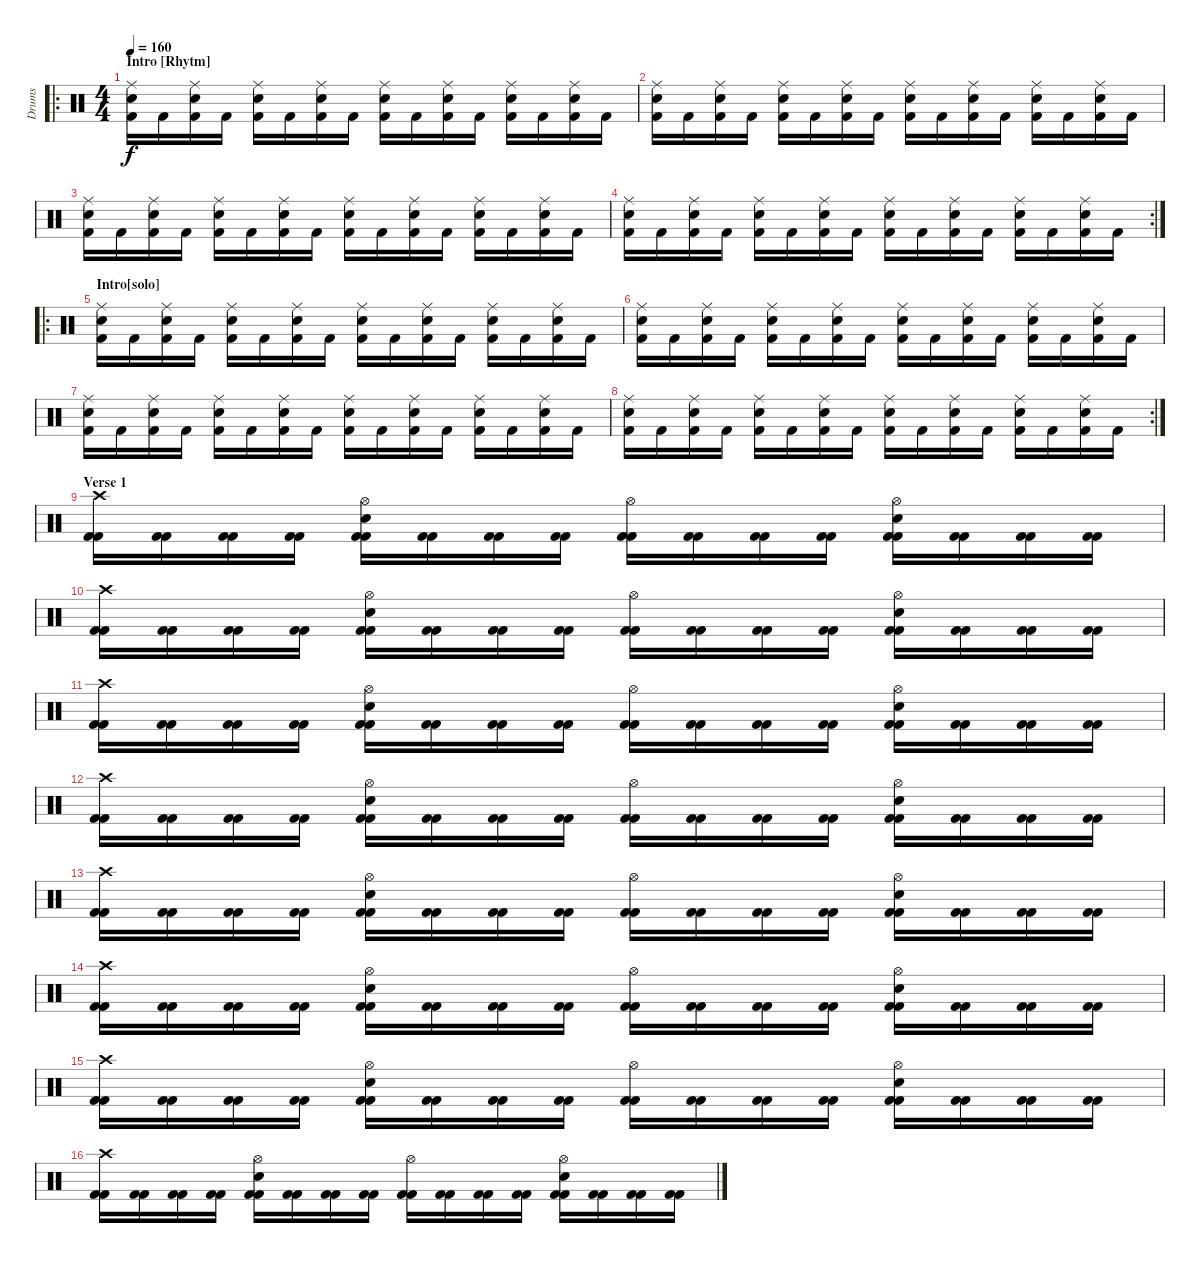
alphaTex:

\track ("Drums" "Drums") {instrument percussion}
\staff {score}
\articulation defaults
\ro
\ts (4 4)
\section ("" "Intro [Rhytm]")
\tempo 160
\clef neutral
\ks c
("Kick (hit) 2" "Electric Snare (hit)" "Ride (middle)").16{dy f} "Kick (hit) 2".16 ("Kick (hit) 2" "Electric Snare (hit)" "Ride (middle)").16 "Kick (hit) 2".16 ("Kick (hit) 2" "Electric Snare (hit)" "Ride (middle)").16 "Kick (hit) 2".16 ("Kick (hit) 2" "Electric Snare (hit)" "Ride (middle)").16 "Kick (hit) 2".16 ("Kick (hit) 2" "Electric Snare (hit)" "Ride (middle)").16 "Kick (hit) 2".16 ("Kick (hit) 2" "Electric Snare (hit)" "Ride (middle)").16 "Kick (hit) 2".16 ("Kick (hit) 2" "Electric Snare (hit)" "Ride (middle)").16 "Kick (hit) 2".16 ("Kick (hit) 2" "Electric Snare (hit)" "Ride (middle)").16 "Kick (hit) 2".16 |
("Kick (hit) 2" "Electric Snare (hit)" "Ride (middle)").16 "Kick (hit) 2".16 ("Kick (hit) 2" "Electric Snare (hit)" "Ride (middle)").16 "Kick (hit) 2".16 ("Kick (hit) 2" "Electric Snare (hit)" "Ride (middle)").16 "Kick (hit) 2".16 ("Kick (hit) 2" "Electric Snare (hit)" "Ride (middle)").16 "Kick (hit) 2".16 ("Kick (hit) 2" "Electric Snare (hit)" "Ride (middle)").16 "Kick (hit) 2".16 ("Kick (hit) 2" "Electric Snare (hit)" "Ride (middle)").16 "Kick (hit) 2".16 ("Kick (hit) 2" "Electric Snare (hit)" "Ride (middle)").16 "Kick (hit) 2".16 ("Kick (hit) 2" "Electric Snare (hit)" "Ride (middle)").16 "Kick (hit) 2".16 |
("Kick (hit) 2" "Electric Snare (hit)" "Ride (middle)").16 "Kick (hit) 2".16 ("Kick (hit) 2" "Electric Snare (hit)" "Ride (middle)").16 "Kick (hit) 2".16 ("Kick (hit) 2" "Electric Snare (hit)" "Ride (middle)").16 "Kick (hit) 2".16 ("Kick (hit) 2" "Electric Snare (hit)" "Ride (middle)").16 "Kick (hit) 2".16 ("Kick (hit) 2" "Electric Snare (hit)" "Ride (middle)").16 "Kick (hit) 2".16 ("Kick (hit) 2" "Electric Snare (hit)" "Ride (middle)").16 "Kick (hit) 2".16 ("Kick (hit) 2" "Electric Snare (hit)" "Ride (middle)").16 "Kick (hit) 2".16 ("Kick (hit) 2" "Electric Snare (hit)" "Ride (middle)").16 "Kick (hit) 2".16 |
\rc 2
("Kick (hit) 2" "Electric Snare (hit)" "Ride (middle)").16 "Kick (hit) 2".16 ("Kick (hit) 2" "Electric Snare (hit)" "Ride (middle)").16 "Kick (hit) 2".16 ("Kick (hit) 2" "Electric Snare (hit)" "Ride (middle)").16 "Kick (hit) 2".16 ("Kick (hit) 2" "Electric Snare (hit)" "Ride (middle)").16 "Kick (hit) 2".16 ("Kick (hit) 2" "Electric Snare (hit)" "Ride (middle)").16 "Kick (hit) 2".16 ("Kick (hit) 2" "Electric Snare (hit)" "Ride (middle)").16 "Kick (hit) 2".16 ("Kick (hit) 2" "Electric Snare (hit)" "Ride (middle)").16 "Kick (hit) 2".16 ("Kick (hit) 2" "Electric Snare (hit)" "Ride (middle)").16 "Kick (hit) 2".16 |
\ro
\section ("" "Intro[solo]")
("Kick (hit) 2" "Electric Snare (hit)" "Ride (middle)").16 "Kick (hit) 2".16 ("Kick (hit) 2" "Electric Snare (hit)" "Ride (middle)").16 "Kick (hit) 2".16 ("Kick (hit) 2" "Electric Snare (hit)" "Ride (middle)").16 "Kick (hit) 2".16 ("Kick (hit) 2" "Electric Snare (hit)" "Ride (middle)").16 "Kick (hit) 2".16 ("Kick (hit) 2" "Electric Snare (hit)" "Ride (middle)").16 "Kick (hit) 2".16 ("Kick (hit) 2" "Electric Snare (hit)" "Ride (middle)").16 "Kick (hit) 2".16 ("Kick (hit) 2" "Electric Snare (hit)" "Ride (middle)").16 "Kick (hit) 2".16 ("Kick (hit) 2" "Electric Snare (hit)" "Ride (middle)").16 "Kick (hit) 2".16 |
("Kick (hit) 2" "Electric Snare (hit)" "Ride (middle)").16 "Kick (hit) 2".16 ("Kick (hit) 2" "Electric Snare (hit)" "Ride (middle)").16 "Kick (hit) 2".16 ("Kick (hit) 2" "Electric Snare (hit)" "Ride (middle)").16 "Kick (hit) 2".16 ("Kick (hit) 2" "Electric Snare (hit)" "Ride (middle)").16 "Kick (hit) 2".16 ("Kick (hit) 2" "Electric Snare (hit)" "Ride (middle)").16 "Kick (hit) 2".16 ("Kick (hit) 2" "Electric Snare (hit)" "Ride (middle)").16 "Kick (hit) 2".16 ("Kick (hit) 2" "Electric Snare (hit)" "Ride (middle)").16 "Kick (hit) 2".16 ("Kick (hit) 2" "Electric Snare (hit)" "Ride (middle)").16 "Kick (hit) 2".16 |
("Kick (hit) 2" "Electric Snare (hit)" "Ride (middle)").16 "Kick (hit) 2".16 ("Kick (hit) 2" "Electric Snare (hit)" "Ride (middle)").16 "Kick (hit) 2".16 ("Kick (hit) 2" "Electric Snare (hit)" "Ride (middle)").16 "Kick (hit) 2".16 ("Kick (hit) 2" "Electric Snare (hit)" "Ride (middle)").16 "Kick (hit) 2".16 ("Kick (hit) 2" "Electric Snare (hit)" "Ride (middle)").16 "Kick (hit) 2".16 ("Kick (hit) 2" "Electric Snare (hit)" "Ride (middle)").16 "Kick (hit) 2".16 ("Kick (hit) 2" "Electric Snare (hit)" "Ride (middle)").16 "Kick (hit) 2".16 ("Kick (hit) 2" "Electric Snare (hit)" "Ride (middle)").16 "Kick (hit) 2".16 |
\rc 2
("Kick (hit) 2" "Electric Snare (hit)" "Ride (middle)").16 "Kick (hit) 2".16 ("Kick (hit) 2" "Electric Snare (hit)" "Ride (middle)").16 "Kick (hit) 2".16 ("Kick (hit) 2" "Electric Snare (hit)" "Ride (middle)").16 "Kick (hit) 2".16 ("Kick (hit) 2" "Electric Snare (hit)" "Ride (middle)").16 "Kick (hit) 2".16 ("Kick (hit) 2" "Electric Snare (hit)" "Ride (middle)").16 "Kick (hit) 2".16 ("Kick (hit) 2" "Electric Snare (hit)" "Ride (middle)").16 "Kick (hit) 2".16 ("Kick (hit) 2" "Electric Snare (hit)" "Ride (middle)").16 "Kick (hit) 2".16 ("Kick (hit) 2" "Electric Snare (hit)" "Ride (middle)").16 "Kick (hit) 2".16 |
\section ("" "Verse 1")
("Kick (hit) 2" "Kick (hit) 2" "Crash high (hit)").16 ("Kick (hit) 2" "Kick (hit) 2").16 ("Kick (hit) 2" "Kick (hit) 2").16 ("Kick (hit) 2" "Kick (hit) 2").16 ("Kick (hit) 2" "Kick (hit) 2" "Electric Snare (hit)" "Hi-Hat (open)").16 ("Kick (hit) 2" "Kick (hit) 2").16 ("Kick (hit) 2" "Kick (hit) 2").16 ("Kick (hit) 2" "Kick (hit) 2").16 ("Kick (hit) 2" "Kick (hit) 2" "Hi-Hat (open)").16 ("Kick (hit) 2" "Kick (hit) 2").16 ("Kick (hit) 2" "Kick (hit) 2").16 ("Kick (hit) 2" "Kick (hit) 2").16 ("Kick (hit) 2" "Kick (hit) 2" "Electric Snare (hit)" "Hi-Hat (open)").16 ("Kick (hit) 2" "Kick (hit) 2").16 ("Kick (hit) 2" "Kick (hit) 2").16 ("Kick (hit) 2" "Kick (hit) 2").16 |
("Kick (hit) 2" "Kick (hit) 2" "Crash high (hit)").16 ("Kick (hit) 2" "Kick (hit) 2").16 ("Kick (hit) 2" "Kick (hit) 2").16 ("Kick (hit) 2" "Kick (hit) 2").16 ("Kick (hit) 2" "Kick (hit) 2" "Electric Snare (hit)" "Hi-Hat (open)").16 ("Kick (hit) 2" "Kick (hit) 2").16 ("Kick (hit) 2" "Kick (hit) 2").16 ("Kick (hit) 2" "Kick (hit) 2").16 ("Kick (hit) 2" "Kick (hit) 2" "Hi-Hat (open)").16 ("Kick (hit) 2" "Kick (hit) 2").16 ("Kick (hit) 2" "Kick (hit) 2").16 ("Kick (hit) 2" "Kick (hit) 2").16 ("Kick (hit) 2" "Kick (hit) 2" "Electric Snare (hit)" "Hi-Hat (open)").16 ("Kick (hit) 2" "Kick (hit) 2").16 ("Kick (hit) 2" "Kick (hit) 2").16 ("Kick (hit) 2" "Kick (hit) 2").16 |
("Kick (hit) 2" "Kick (hit) 2" "Crash high (hit)").16 ("Kick (hit) 2" "Kick (hit) 2").16 ("Kick (hit) 2" "Kick (hit) 2").16 ("Kick (hit) 2" "Kick (hit) 2").16 ("Kick (hit) 2" "Kick (hit) 2" "Electric Snare (hit)" "Hi-Hat (open)").16 ("Kick (hit) 2" "Kick (hit) 2").16 ("Kick (hit) 2" "Kick (hit) 2").16 ("Kick (hit) 2" "Kick (hit) 2").16 ("Kick (hit) 2" "Kick (hit) 2" "Hi-Hat (open)").16 ("Kick (hit) 2" "Kick (hit) 2").16 ("Kick (hit) 2" "Kick (hit) 2").16 ("Kick (hit) 2" "Kick (hit) 2").16 ("Kick (hit) 2" "Kick (hit) 2" "Electric Snare (hit)" "Hi-Hat (open)").16 ("Kick (hit) 2" "Kick (hit) 2").16 ("Kick (hit) 2" "Kick (hit) 2").16 ("Kick (hit) 2" "Kick (hit) 2").16 |
("Kick (hit) 2" "Kick (hit) 2" "Crash high (hit)").16 ("Kick (hit) 2" "Kick (hit) 2").16 ("Kick (hit) 2" "Kick (hit) 2").16 ("Kick (hit) 2" "Kick (hit) 2").16 ("Kick (hit) 2" "Kick (hit) 2" "Electric Snare (hit)" "Hi-Hat (open)").16 ("Kick (hit) 2" "Kick (hit) 2").16 ("Kick (hit) 2" "Kick (hit) 2").16 ("Kick (hit) 2" "Kick (hit) 2").16 ("Kick (hit) 2" "Kick (hit) 2" "Hi-Hat (open)").16 ("Kick (hit) 2" "Kick (hit) 2").16 ("Kick (hit) 2" "Kick (hit) 2").16 ("Kick (hit) 2" "Kick (hit) 2").16 ("Kick (hit) 2" "Kick (hit) 2" "Electric Snare (hit)" "Hi-Hat (open)").16 ("Kick (hit) 2" "Kick (hit) 2").16 ("Kick (hit) 2" "Kick (hit) 2").16 ("Kick (hit) 2" "Kick (hit) 2").16 |
("Kick (hit) 2" "Kick (hit) 2" "Crash high (hit)").16 ("Kick (hit) 2" "Kick (hit) 2").16 ("Kick (hit) 2" "Kick (hit) 2").16 ("Kick (hit) 2" "Kick (hit) 2").16 ("Kick (hit) 2" "Kick (hit) 2" "Electric Snare (hit)" "Hi-Hat (open)").16 ("Kick (hit) 2" "Kick (hit) 2").16 ("Kick (hit) 2" "Kick (hit) 2").16 ("Kick (hit) 2" "Kick (hit) 2").16 ("Kick (hit) 2" "Kick (hit) 2" "Hi-Hat (open)").16 ("Kick (hit) 2" "Kick (hit) 2").16 ("Kick (hit) 2" "Kick (hit) 2").16 ("Kick (hit) 2" "Kick (hit) 2").16 ("Kick (hit) 2" "Kick (hit) 2" "Electric Snare (hit)" "Hi-Hat (open)").16 ("Kick (hit) 2" "Kick (hit) 2").16 ("Kick (hit) 2" "Kick (hit) 2").16 ("Kick (hit) 2" "Kick (hit) 2").16 |
("Kick (hit) 2" "Kick (hit) 2" "Crash high (hit)").16 ("Kick (hit) 2" "Kick (hit) 2").16 ("Kick (hit) 2" "Kick (hit) 2").16 ("Kick (hit) 2" "Kick (hit) 2").16 ("Kick (hit) 2" "Kick (hit) 2" "Electric Snare (hit)" "Hi-Hat (open)").16 ("Kick (hit) 2" "Kick (hit) 2").16 ("Kick (hit) 2" "Kick (hit) 2").16 ("Kick (hit) 2" "Kick (hit) 2").16 ("Kick (hit) 2" "Kick (hit) 2" "Hi-Hat (open)").16 ("Kick (hit) 2" "Kick (hit) 2").16 ("Kick (hit) 2" "Kick (hit) 2").16 ("Kick (hit) 2" "Kick (hit) 2").16 ("Kick (hit) 2" "Kick (hit) 2" "Electric Snare (hit)" "Hi-Hat (open)").16 ("Kick (hit) 2" "Kick (hit) 2").16 ("Kick (hit) 2" "Kick (hit) 2").16 ("Kick (hit) 2" "Kick (hit) 2").16 |
("Kick (hit) 2" "Kick (hit) 2" "Crash high (hit)").16 ("Kick (hit) 2" "Kick (hit) 2").16 ("Kick (hit) 2" "Kick (hit) 2").16 ("Kick (hit) 2" "Kick (hit) 2").16 ("Kick (hit) 2" "Kick (hit) 2" "Electric Snare (hit)" "Hi-Hat (open)").16 ("Kick (hit) 2" "Kick (hit) 2").16 ("Kick (hit) 2" "Kick (hit) 2").16 ("Kick (hit) 2" "Kick (hit) 2").16 ("Kick (hit) 2" "Kick (hit) 2" "Hi-Hat (open)").16 ("Kick (hit) 2" "Kick (hit) 2").16 ("Kick (hit) 2" "Kick (hit) 2").16 ("Kick (hit) 2" "Kick (hit) 2").16 ("Kick (hit) 2" "Kick (hit) 2" "Electric Snare (hit)" "Hi-Hat (open)").16 ("Kick (hit) 2" "Kick (hit) 2").16 ("Kick (hit) 2" "Kick (hit) 2").16 ("Kick (hit) 2" "Kick (hit) 2").16 |
("Kick (hit) 2" "Kick (hit) 2" "Crash high (hit)").16 ("Kick (hit) 2" "Kick (hit) 2").16 ("Kick (hit) 2" "Kick (hit) 2").16 ("Kick (hit) 2" "Kick (hit) 2").16 ("Kick (hit) 2" "Kick (hit) 2" "Electric Snare (hit)" "Hi-Hat (open)").16 ("Kick (hit) 2" "Kick (hit) 2").16 ("Kick (hit) 2" "Kick (hit) 2").16 ("Kick (hit) 2" "Kick (hit) 2").16 ("Kick (hit) 2" "Kick (hit) 2" "Hi-Hat (open)").16 ("Kick (hit) 2" "Kick (hit) 2").16 ("Kick (hit) 2" "Kick (hit) 2").16 ("Kick (hit) 2" "Kick (hit) 2").16 ("Kick (hit) 2" "Kick (hit) 2" "Electric Snare (hit)" "Hi-Hat (open)").16 ("Kick (hit) 2" "Kick (hit) 2").16 ("Kick (hit) 2" "Kick (hit) 2").16 ("Kick (hit) 2" "Kick (hit) 2").16
